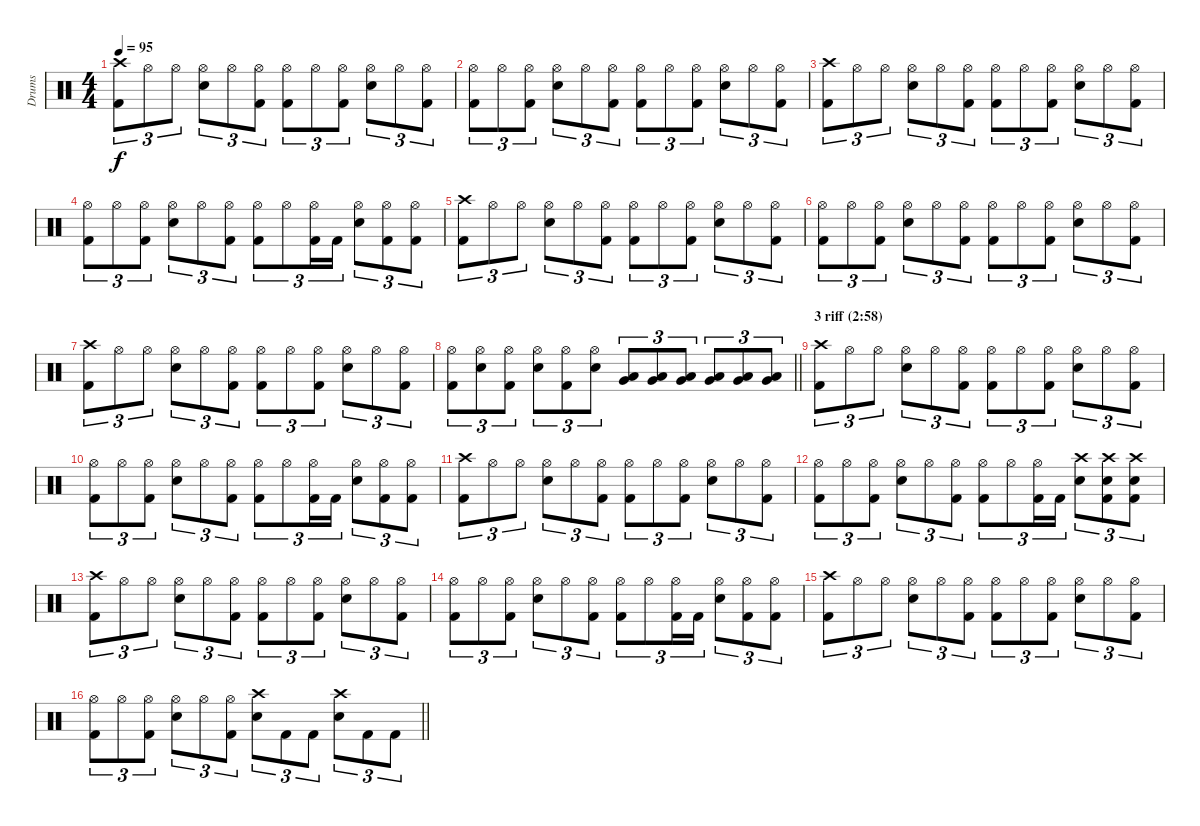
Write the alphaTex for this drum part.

\track ("Drums" "Drums") {instrument percussion}
\staff {score}
\articulation defaults
\ts (4 4)
\tempo 95
\clef neutral
\ks c
("Crash high (hit)" "Kick (hit) 2").8{tu (3 2) dy f} "Hi-Hat (open)".8{tu (3 2)} "Hi-Hat (open)".8{tu (3 2)} ("Hi-Hat (open)" "Snare (hit) 2").8{tu (3 2)} "Hi-Hat (open)".8{tu (3 2)} ("Hi-Hat (open)" "Kick (hit) 2").8{tu (3 2)} ("Hi-Hat (open)" "Kick (hit) 2").8{tu (3 2)} "Hi-Hat (open)".8{tu (3 2)} ("Hi-Hat (open)" "Kick (hit) 2").8{tu (3 2)} ("Hi-Hat (open)" "Snare (hit) 2").8{tu (3 2)} "Hi-Hat (open)".8{tu (3 2)} ("Hi-Hat (open)" "Kick (hit) 2").8{tu (3 2)} |
("Hi-Hat (open)" "Kick (hit) 2").8{tu (3 2)} "Hi-Hat (open)".8{tu (3 2)} ("Hi-Hat (open)" "Kick (hit) 2").8{tu (3 2)} ("Hi-Hat (open)" "Snare (hit) 2").8{tu (3 2)} "Hi-Hat (open)".8{tu (3 2)} ("Hi-Hat (open)" "Kick (hit) 2").8{tu (3 2)} ("Hi-Hat (open)" "Kick (hit) 2").8{tu (3 2)} "Hi-Hat (open)".8{tu (3 2)} ("Hi-Hat (open)" "Kick (hit) 2").8{tu (3 2)} ("Hi-Hat (open)" "Snare (hit) 2").8{tu (3 2)} "Hi-Hat (open)".8{tu (3 2)} ("Hi-Hat (open)" "Kick (hit) 2").8{tu (3 2)} |
("Crash high (hit)" "Kick (hit) 2").8{tu (3 2)} "Hi-Hat (open)".8{tu (3 2)} "Hi-Hat (open)".8{tu (3 2)} ("Hi-Hat (open)" "Snare (hit) 2").8{tu (3 2)} "Hi-Hat (open)".8{tu (3 2)} ("Hi-Hat (open)" "Kick (hit) 2").8{tu (3 2)} ("Hi-Hat (open)" "Kick (hit) 2").8{tu (3 2)} "Hi-Hat (open)".8{tu (3 2)} ("Hi-Hat (open)" "Kick (hit) 2").8{tu (3 2)} ("Hi-Hat (open)" "Snare (hit) 2").8{tu (3 2)} "Hi-Hat (open)".8{tu (3 2)} ("Hi-Hat (open)" "Kick (hit) 2").8{tu (3 2)} |
("Hi-Hat (open)" "Kick (hit) 2").8{tu (3 2)} "Hi-Hat (open)".8{tu (3 2)} ("Hi-Hat (open)" "Kick (hit) 2").8{tu (3 2)} ("Hi-Hat (open)" "Snare (hit) 2").8{tu (3 2)} "Hi-Hat (open)".8{tu (3 2)} ("Hi-Hat (open)" "Kick (hit) 2").8{tu (3 2)} ("Hi-Hat (open)" "Kick (hit) 2").8{tu (3 2)} "Hi-Hat (open)".8{tu (3 2)} ("Hi-Hat (open)" "Kick (hit) 2").16{tu (3 2)} "Kick (hit) 2".16{tu (3 2)} ("Hi-Hat (open)" "Snare (hit) 2").8{tu (3 2)} ("Hi-Hat (open)" "Kick (hit) 2").8{tu (3 2)} ("Hi-Hat (open)" "Kick (hit) 2").8{tu (3 2)} |
("Crash high (hit)" "Kick (hit) 2").8{tu (3 2)} "Hi-Hat (open)".8{tu (3 2)} "Hi-Hat (open)".8{tu (3 2)} ("Hi-Hat (open)" "Snare (hit) 2").8{tu (3 2)} "Hi-Hat (open)".8{tu (3 2)} ("Hi-Hat (open)" "Kick (hit) 2").8{tu (3 2)} ("Hi-Hat (open)" "Kick (hit) 2").8{tu (3 2)} "Hi-Hat (open)".8{tu (3 2)} ("Hi-Hat (open)" "Kick (hit) 2").8{tu (3 2)} ("Hi-Hat (open)" "Snare (hit) 2").8{tu (3 2)} "Hi-Hat (open)".8{tu (3 2)} ("Hi-Hat (open)" "Kick (hit) 2").8{tu (3 2)} |
("Hi-Hat (open)" "Kick (hit) 2").8{tu (3 2)} "Hi-Hat (open)".8{tu (3 2)} ("Hi-Hat (open)" "Kick (hit) 2").8{tu (3 2)} ("Hi-Hat (open)" "Snare (hit) 2").8{tu (3 2)} "Hi-Hat (open)".8{tu (3 2)} ("Hi-Hat (open)" "Kick (hit) 2").8{tu (3 2)} ("Hi-Hat (open)" "Kick (hit) 2").8{tu (3 2)} "Hi-Hat (open)".8{tu (3 2)} ("Hi-Hat (open)" "Kick (hit) 2").8{tu (3 2)} ("Hi-Hat (open)" "Snare (hit) 2").8{tu (3 2)} "Hi-Hat (open)".8{tu (3 2)} ("Hi-Hat (open)" "Kick (hit) 2").8{tu (3 2)} |
("Crash high (hit)" "Kick (hit) 2").8{tu (3 2)} "Hi-Hat (open)".8{tu (3 2)} "Hi-Hat (open)".8{tu (3 2)} ("Hi-Hat (open)" "Snare (hit) 2").8{tu (3 2)} "Hi-Hat (open)".8{tu (3 2)} ("Hi-Hat (open)" "Kick (hit) 2").8{tu (3 2)} ("Hi-Hat (open)" "Kick (hit) 2").8{tu (3 2)} "Hi-Hat (open)".8{tu (3 2)} ("Hi-Hat (open)" "Kick (hit) 2").8{tu (3 2)} ("Hi-Hat (open)" "Snare (hit) 2").8{tu (3 2)} "Hi-Hat (open)".8{tu (3 2)} ("Hi-Hat (open)" "Kick (hit) 2").8{tu (3 2)} |
\barLineRight lightlight
("Hi-Hat (open)" "Kick (hit) 2").8{tu (3 2)} ("Hi-Hat (open)" "Snare (hit) 2").8{tu (3 2)} ("Hi-Hat (open)" "Kick (hit) 2").8{tu (3 2)} ("Hi-Hat (open)" "Snare (hit) 2").8{tu (3 2)} ("Hi-Hat (open)" "Kick (hit) 2").8{tu (3 2)} ("Hi-Hat (open)" "Snare (hit) 2").8{tu (3 2)} ("Very Low Tom (hit)" "Low Tom (hit)").8{tu (3 2)} ("Very Low Tom (hit)" "Low Tom (hit)").8{tu (3 2)} ("Very Low Tom (hit)" "Low Tom (hit)").8{tu (3 2)} ("Very Low Tom (hit)" "Low Tom (hit)").8{tu (3 2)} ("Very Low Tom (hit)" "Low Tom (hit)").8{tu (3 2)} ("Very Low Tom (hit)" "Low Tom (hit)").8{tu (3 2)} |
\section ("" "3 riff (2:58)")
("Crash high (hit)" "Kick (hit) 2").8{tu (3 2)} "Hi-Hat (open)".8{tu (3 2)} "Hi-Hat (open)".8{tu (3 2)} ("Hi-Hat (open)" "Snare (hit) 2").8{tu (3 2)} "Hi-Hat (open)".8{tu (3 2)} ("Hi-Hat (open)" "Kick (hit) 2").8{tu (3 2)} ("Hi-Hat (open)" "Kick (hit) 2").8{tu (3 2)} "Hi-Hat (open)".8{tu (3 2)} ("Hi-Hat (open)" "Kick (hit) 2").8{tu (3 2)} ("Hi-Hat (open)" "Snare (hit) 2").8{tu (3 2)} "Hi-Hat (open)".8{tu (3 2)} ("Hi-Hat (open)" "Kick (hit) 2").8{tu (3 2)} |
("Hi-Hat (open)" "Kick (hit) 2").8{tu (3 2)} "Hi-Hat (open)".8{tu (3 2)} ("Hi-Hat (open)" "Kick (hit) 2").8{tu (3 2)} ("Hi-Hat (open)" "Snare (hit) 2").8{tu (3 2)} "Hi-Hat (open)".8{tu (3 2)} ("Hi-Hat (open)" "Kick (hit) 2").8{tu (3 2)} ("Hi-Hat (open)" "Kick (hit) 2").8{tu (3 2)} "Hi-Hat (open)".8{tu (3 2)} ("Hi-Hat (open)" "Kick (hit) 2").16{tu (3 2)} "Kick (hit) 2".16{tu (3 2)} ("Hi-Hat (open)" "Snare (hit) 2").8{tu (3 2)} ("Hi-Hat (open)" "Kick (hit) 2").8{tu (3 2)} ("Hi-Hat (open)" "Kick (hit) 2").8{tu (3 2)} |
("Crash high (hit)" "Kick (hit) 2").8{tu (3 2)} "Hi-Hat (open)".8{tu (3 2)} "Hi-Hat (open)".8{tu (3 2)} ("Hi-Hat (open)" "Snare (hit) 2").8{tu (3 2)} "Hi-Hat (open)".8{tu (3 2)} ("Hi-Hat (open)" "Kick (hit) 2").8{tu (3 2)} ("Hi-Hat (open)" "Kick (hit) 2").8{tu (3 2)} "Hi-Hat (open)".8{tu (3 2)} ("Hi-Hat (open)" "Kick (hit) 2").8{tu (3 2)} ("Hi-Hat (open)" "Snare (hit) 2").8{tu (3 2)} "Hi-Hat (open)".8{tu (3 2)} ("Hi-Hat (open)" "Kick (hit) 2").8{tu (3 2)} |
("Hi-Hat (open)" "Kick (hit) 2").8{tu (3 2)} "Hi-Hat (open)".8{tu (3 2)} ("Hi-Hat (open)" "Kick (hit) 2").8{tu (3 2)} ("Hi-Hat (open)" "Snare (hit) 2").8{tu (3 2)} "Hi-Hat (open)".8{tu (3 2)} ("Hi-Hat (open)" "Kick (hit) 2").8{tu (3 2)} ("Hi-Hat (open)" "Kick (hit) 2").8{tu (3 2)} "Hi-Hat (open)".8{tu (3 2)} ("Hi-Hat (open)" "Kick (hit) 2").16{tu (3 2)} "Kick (hit) 2".16{tu (3 2)} ("Crash high (hit)" "Snare (hit) 2").8{tu (3 2)} ("Crash high (hit)" "Snare (hit) 2" "Kick (hit) 2").8{tu (3 2)} ("Crash high (hit)" "Snare (hit) 2" "Kick (hit) 2").8{tu (3 2)} |
("Crash high (hit)" "Kick (hit) 2").8{tu (3 2)} "Hi-Hat (open)".8{tu (3 2)} "Hi-Hat (open)".8{tu (3 2)} ("Hi-Hat (open)" "Snare (hit) 2").8{tu (3 2)} "Hi-Hat (open)".8{tu (3 2)} ("Hi-Hat (open)" "Kick (hit) 2").8{tu (3 2)} ("Hi-Hat (open)" "Kick (hit) 2").8{tu (3 2)} "Hi-Hat (open)".8{tu (3 2)} ("Hi-Hat (open)" "Kick (hit) 2").8{tu (3 2)} ("Hi-Hat (open)" "Snare (hit) 2").8{tu (3 2)} "Hi-Hat (open)".8{tu (3 2)} ("Hi-Hat (open)" "Kick (hit) 2").8{tu (3 2)} |
("Hi-Hat (open)" "Kick (hit) 2").8{tu (3 2)} "Hi-Hat (open)".8{tu (3 2)} ("Hi-Hat (open)" "Kick (hit) 2").8{tu (3 2)} ("Hi-Hat (open)" "Snare (hit) 2").8{tu (3 2)} "Hi-Hat (open)".8{tu (3 2)} ("Hi-Hat (open)" "Kick (hit) 2").8{tu (3 2)} ("Hi-Hat (open)" "Kick (hit) 2").8{tu (3 2)} "Hi-Hat (open)".8{tu (3 2)} ("Hi-Hat (open)" "Kick (hit) 2").16{tu (3 2)} "Kick (hit) 2".16{tu (3 2)} ("Hi-Hat (open)" "Snare (hit) 2").8{tu (3 2)} ("Hi-Hat (open)" "Kick (hit) 2").8{tu (3 2)} ("Hi-Hat (open)" "Kick (hit) 2").8{tu (3 2)} |
("Crash high (hit)" "Kick (hit) 2").8{tu (3 2)} "Hi-Hat (open)".8{tu (3 2)} "Hi-Hat (open)".8{tu (3 2)} ("Hi-Hat (open)" "Snare (hit) 2").8{tu (3 2)} "Hi-Hat (open)".8{tu (3 2)} ("Hi-Hat (open)" "Kick (hit) 2").8{tu (3 2)} ("Hi-Hat (open)" "Kick (hit) 2").8{tu (3 2)} "Hi-Hat (open)".8{tu (3 2)} ("Hi-Hat (open)" "Kick (hit) 2").8{tu (3 2)} ("Hi-Hat (open)" "Snare (hit) 2").8{tu (3 2)} "Hi-Hat (open)".8{tu (3 2)} ("Hi-Hat (open)" "Kick (hit) 2").8{tu (3 2)} |
\barLineRight lightlight
("Hi-Hat (open)" "Kick (hit) 2").8{tu (3 2)} "Hi-Hat (open)".8{tu (3 2)} ("Hi-Hat (open)" "Kick (hit) 2").8{tu (3 2)} ("Hi-Hat (open)" "Snare (hit) 2").8{tu (3 2)} "Hi-Hat (open)".8{tu (3 2)} ("Hi-Hat (open)" "Kick (hit) 2").8{tu (3 2)} ("Crash high (hit)" "Snare (hit) 2").8{tu (3 2)} "Kick (hit) 2".8{tu (3 2)} "Kick (hit) 2".8{tu (3 2)} ("Crash high (hit)" "Snare (hit) 2").8{tu (3 2)} "Kick (hit) 2".8{tu (3 2)} "Kick (hit) 2".8{tu (3 2)}
